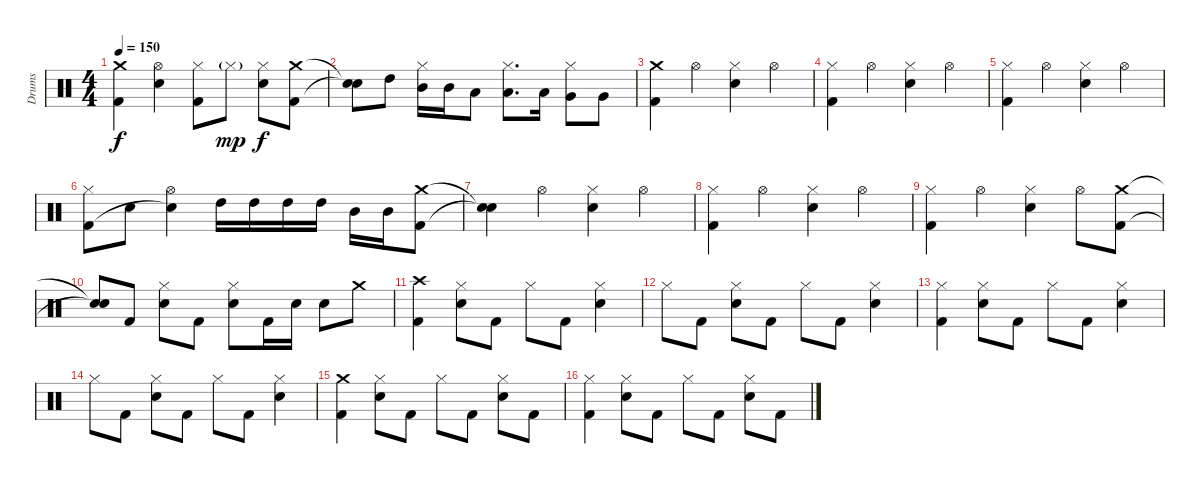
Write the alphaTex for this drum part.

\track ("Drums" "Drums") {instrument percussion}
\staff {score}
\articulation defaults
\ts (4 4)
\tempo 150
\clef neutral
\ks c
("Crash medium (hit)" "Kick (hit) 2").4{dy f} ("Hi-Hat (open)" "Electric Snare (hit)").4 ("Hi-Hat (closed)" "Kick (hit) 2").8 "Hi-Hat (closed)"{g}.8{dy mp} ("Hi-Hat (closed)" "Electric Snare (hit)").8{dy f} ("Crash medium (hit)" "Kick (hit) 2").8 |
("Snare (hit)"{t} "Snare (hit)"{t}).8 "High Tom (hit)".8 ("Mid Tom (hit)" "Hi-Hat (closed)").16 "Mid Tom (hit)".16 "Low Tom (hit)".8 ("Low Tom (hit)" "Hi-Hat (closed)").8{d} "Low Tom (hit)".16 ("Very Low Tom (hit)" "Hi-Hat (closed)").8 "Very Low Tom (hit)".8 |
("Crash medium (hit)" "Kick (hit) 2").4 "Hi-Hat (open)".4 ("Hi-Hat (closed)" "Electric Snare (hit)").4 "Hi-Hat (open)".4 |
("Hi-Hat (closed)" "Kick (hit) 2").4 "Hi-Hat (open)".4 ("Hi-Hat (closed)" "Electric Snare (hit)").4 "Hi-Hat (open)".4 |
("Hi-Hat (closed)" "Kick (hit) 2").4 "Hi-Hat (open)".4 ("Hi-Hat (closed)" "Electric Snare (hit)").4 "Hi-Hat (open)".4 |
("Hi-Hat (closed)" "Kick (hit) 2").8 "Electric Snare (hit)".8 ("Hi-Hat (open)" "Snare (hit)"{t}).4 "High Tom (hit)".16 "High Tom (hit)".16 "High Tom (hit)".16 "High Tom (hit)".16 "Mid Tom (hit)".16 "Mid Tom (hit)".16 ("Crash medium (hit)" "Kick (hit) 2").8 |
("Snare (hit)"{t} "Snare (hit)"{t}).4 "Hi-Hat (open)".4 ("Hi-Hat (closed)" "Electric Snare (hit)").4 "Hi-Hat (open)".4 |
("Hi-Hat (closed)" "Kick (hit) 2").4 "Hi-Hat (open)".4 ("Hi-Hat (closed)" "Electric Snare (hit)").4 "Hi-Hat (open)".4 |
("Hi-Hat (closed)" "Kick (hit) 2").4 "Hi-Hat (open)".4 ("Hi-Hat (closed)" "Electric Snare (hit)").4 "Hi-Hat (open)".8 ("Crash medium (hit)" "Kick (hit) 2").8 |
("Snare (hit)"{t} "Snare (hit)"{t}).8 "Kick (hit) 2".8 ("Hi-Hat (closed)" "Electric Snare (hit)").8 "Kick (hit) 2".8 ("Hi-Hat (closed)" "Electric Snare (hit)").8 "Kick (hit) 2".16 "Electric Snare (hit)".16 "Electric Snare (hit)".8 "Crash medium (hit)".8 |
("Crash high (hit)" "Kick (hit) 2").4 ("Hi-Hat (closed)" "Electric Snare (hit)").8 "Kick (hit) 2".8 "Hi-Hat (closed)".8 "Kick (hit) 2".8 ("Hi-Hat (closed)" "Electric Snare (hit)").4 |
"Hi-Hat (closed)".8 "Kick (hit) 2".8 ("Hi-Hat (closed)" "Electric Snare (hit)").8 "Kick (hit) 2".8 "Hi-Hat (closed)".8 "Kick (hit) 2".8 ("Hi-Hat (closed)" "Electric Snare (hit)").4 |
("Hi-Hat (closed)" "Kick (hit) 2").4 ("Hi-Hat (closed)" "Electric Snare (hit)").8 "Kick (hit) 2".8 "Hi-Hat (closed)".8 "Kick (hit) 2".8 ("Hi-Hat (closed)" "Electric Snare (hit)").4 |
"Hi-Hat (closed)".8 "Kick (hit) 2".8 ("Hi-Hat (closed)" "Electric Snare (hit)").8 "Kick (hit) 2".8 "Hi-Hat (closed)".8 "Kick (hit) 2".8 ("Hi-Hat (closed)" "Electric Snare (hit)").4 |
("Crash medium (hit)" "Kick (hit) 2").4 ("Hi-Hat (closed)" "Electric Snare (hit)").8 "Kick (hit) 2".8 "Hi-Hat (closed)".8 "Kick (hit) 2".8 ("Hi-Hat (closed)" "Electric Snare (hit)").8 "Kick (hit) 2".8 |
("Hi-Hat (closed)" "Kick (hit) 2").4 ("Hi-Hat (closed)" "Electric Snare (hit)").8 "Kick (hit) 2".8 "Hi-Hat (closed)".8 "Kick (hit) 2".8 ("Hi-Hat (closed)" "Electric Snare (hit)").8 "Kick (hit) 2".8
